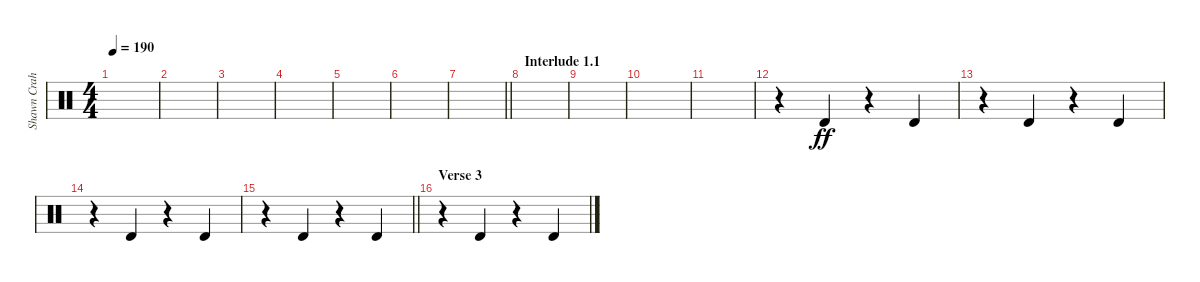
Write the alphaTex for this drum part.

\track ("Shawn Crahan" "Shawn Crah") {instrument percussion}
\staff {score}
\articulation defaults
\ts (4 4)
\tempo 190
\clef neutral
\ks c
|
|
|
|
|
|
\barLineRight lightlight
|
\section ("" "Interlude 1.1")
|
|
|
|
r.4 "Timbale high (hit)".4{dy ff} r.4 "Timbale high (hit)".4 |
r.4 "Timbale high (hit)".4 r.4 "Timbale high (hit)".4 |
r.4 "Timbale high (hit)".4 r.4 "Timbale high (hit)".4 |
\barLineRight lightlight
r.4 "Timbale high (hit)".4 r.4 "Timbale high (hit)".4 |
\section ("" "Verse 3")
r.4 "Timbale high (hit)".4 r.4 "Timbale high (hit)".4
